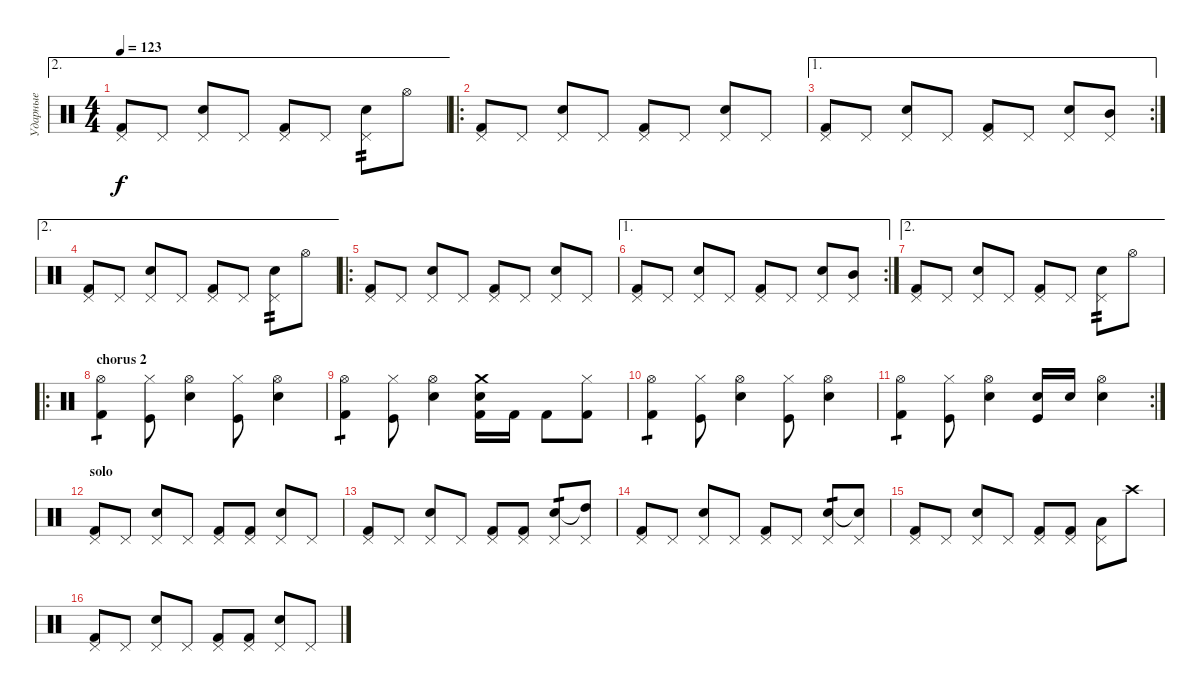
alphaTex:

\track ("Ударные" "Ударные") {instrument percussion}
\staff {score}
\articulation defaults
\ae 2
\ts (4 4)
\tempo 123
\clef neutral
\ks c
("Pedal Hi-Hat (hit)" "Kick (hit) 2").8{dy f} "Pedal Hi-Hat (hit)".8 ("Pedal Hi-Hat (hit)" "Snare (hit) 2").8 "Pedal Hi-Hat (hit)".8 ("Pedal Hi-Hat (hit)" "Kick (hit) 2").8 "Pedal Hi-Hat (hit)".8 ("Pedal Hi-Hat (hit)" "Snare (hit) 2").8{tp 2} "Hi-Hat (open)".8 |
\ro
("Pedal Hi-Hat (hit)" "Kick (hit) 2").8 "Pedal Hi-Hat (hit)".8 ("Pedal Hi-Hat (hit)" "Snare (hit) 2").8 "Pedal Hi-Hat (hit)".8 ("Pedal Hi-Hat (hit)" "Kick (hit) 2").8 "Pedal Hi-Hat (hit)".8 ("Pedal Hi-Hat (hit)" "Snare (hit) 2").8 "Pedal Hi-Hat (hit)".8 |
\ae 1
\rc 2
("Pedal Hi-Hat (hit)" "Kick (hit) 2").8 "Pedal Hi-Hat (hit)".8 ("Pedal Hi-Hat (hit)" "Snare (hit) 2").8 "Pedal Hi-Hat (hit)".8 ("Pedal Hi-Hat (hit)" "Kick (hit) 2").8 "Pedal Hi-Hat (hit)".8 ("Pedal Hi-Hat (hit)" "Snare (hit) 2").8 ("Pedal Hi-Hat (hit)" "Mid Tom (hit)").8 |
\ae 2
("Pedal Hi-Hat (hit)" "Kick (hit) 2").8 "Pedal Hi-Hat (hit)".8 ("Pedal Hi-Hat (hit)" "Snare (hit) 2").8 "Pedal Hi-Hat (hit)".8 ("Pedal Hi-Hat (hit)" "Kick (hit) 2").8 "Pedal Hi-Hat (hit)".8 ("Pedal Hi-Hat (hit)" "Snare (hit) 2").8{tp 2} "Hi-Hat (open)".8 |
\ro
("Pedal Hi-Hat (hit)" "Kick (hit) 2").8 "Pedal Hi-Hat (hit)".8 ("Pedal Hi-Hat (hit)" "Snare (hit) 2").8 "Pedal Hi-Hat (hit)".8 ("Pedal Hi-Hat (hit)" "Kick (hit) 2").8 "Pedal Hi-Hat (hit)".8 ("Pedal Hi-Hat (hit)" "Snare (hit) 2").8 "Pedal Hi-Hat (hit)".8 |
\ae 1
\rc 2
("Pedal Hi-Hat (hit)" "Kick (hit) 2").8 "Pedal Hi-Hat (hit)".8 ("Pedal Hi-Hat (hit)" "Snare (hit) 2").8 "Pedal Hi-Hat (hit)".8 ("Pedal Hi-Hat (hit)" "Kick (hit) 2").8 "Pedal Hi-Hat (hit)".8 ("Pedal Hi-Hat (hit)" "Snare (hit) 2").8 ("Pedal Hi-Hat (hit)" "Mid Tom (hit)").8 |
\ae 2
("Pedal Hi-Hat (hit)" "Kick (hit) 2").8 "Pedal Hi-Hat (hit)".8 ("Pedal Hi-Hat (hit)" "Snare (hit) 2").8 "Pedal Hi-Hat (hit)".8 ("Pedal Hi-Hat (hit)" "Kick (hit) 2").8 "Pedal Hi-Hat (hit)".8 ("Pedal Hi-Hat (hit)" "Snare (hit) 2").8{tp 2} "Hi-Hat (open)".8 |
\ro
\section ("" "chorus 2")
("Hi-Hat (open)" "Kick (hit) 2").4{tp 1} ("Hi-Hat (closed)" "Kick (hit)").8 ("Hi-Hat (open)" "Snare (hit) 2").4 ("Hi-Hat (closed)" "Kick (hit)").8 ("Hi-Hat (open)" "Snare (hit) 2").4 |
("Hi-Hat (open)" "Kick (hit) 2").4{tp 1} ("Hi-Hat (closed)" "Kick (hit)").8 ("Hi-Hat (open)" "Snare (hit) 2").4 ("Crash medium (hit)" "Snare (hit) 2" "Kick (hit) 2").16 "Kick (hit) 2".16 "Kick (hit) 2".8 ("Hi-Hat (closed)" "Kick (hit) 2").8 |
("Hi-Hat (open)" "Kick (hit) 2").4{tp 1} ("Hi-Hat (closed)" "Kick (hit)").8 ("Hi-Hat (open)" "Snare (hit) 2").4 ("Hi-Hat (closed)" "Kick (hit)").8 ("Hi-Hat (open)" "Snare (hit) 2").4 |
\rc 2
("Hi-Hat (open)" "Kick (hit) 2").4{tp 1} ("Hi-Hat (closed)" "Kick (hit)").8 ("Hi-Hat (open)" "Snare (hit) 2").4 ("Snare (hit) 2" "Kick (hit)").16 "Snare (hit) 2".16 ("Hi-Hat (open)" "Snare (hit) 2").4 |
\section ("" "solo")
("Pedal Hi-Hat (hit)" "Kick (hit) 2").8 "Pedal Hi-Hat (hit)".8 ("Pedal Hi-Hat (hit)" "Snare (hit) 2").8 "Pedal Hi-Hat (hit)".8 ("Pedal Hi-Hat (hit)" "Kick (hit) 2").8 ("Pedal Hi-Hat (hit)" "Kick (hit) 2").8 ("Pedal Hi-Hat (hit)" "Snare (hit) 2").8 "Pedal Hi-Hat (hit)".8 |
("Pedal Hi-Hat (hit)" "Kick (hit) 2").8 "Pedal Hi-Hat (hit)".8 ("Pedal Hi-Hat (hit)" "Snare (hit) 2").8 "Pedal Hi-Hat (hit)".8 ("Pedal Hi-Hat (hit)" "Kick (hit) 2").8 ("Pedal Hi-Hat (hit)" "Kick (hit) 2").8 ("Pedal Hi-Hat (hit)" "Snare (hit) 2").8{tp 1} ("Pedal Hi-Hat (hit)" "High Tom (hit)"{t}).8 |
("Pedal Hi-Hat (hit)" "Kick (hit) 2").8 "Pedal Hi-Hat (hit)".8 ("Pedal Hi-Hat (hit)" "Snare (hit) 2").8 "Pedal Hi-Hat (hit)".8 ("Pedal Hi-Hat (hit)" "Kick (hit) 2").8 "Pedal Hi-Hat (hit)".8 ("Pedal Hi-Hat (hit)" "Snare (hit) 2").8{tp 1} ("Pedal Hi-Hat (hit)" "Snare (hit)"{t}).8 |
("Pedal Hi-Hat (hit)" "Kick (hit) 2").8 "Pedal Hi-Hat (hit)".8 ("Pedal Hi-Hat (hit)" "Snare (hit) 2").8 "Pedal Hi-Hat (hit)".8 ("Pedal Hi-Hat (hit)" "Kick (hit) 2").8 ("Pedal Hi-Hat (hit)" "Kick (hit) 2").8 ("Pedal Hi-Hat (hit)" "Low Tom (hit)").8 "Crash high (hit)".8 |
("Pedal Hi-Hat (hit)" "Kick (hit) 2").8 "Pedal Hi-Hat (hit)".8 ("Pedal Hi-Hat (hit)" "Snare (hit) 2").8 "Pedal Hi-Hat (hit)".8 ("Pedal Hi-Hat (hit)" "Kick (hit) 2").8 ("Pedal Hi-Hat (hit)" "Kick (hit) 2").8 ("Pedal Hi-Hat (hit)" "Snare (hit) 2").8 "Pedal Hi-Hat (hit)".8
